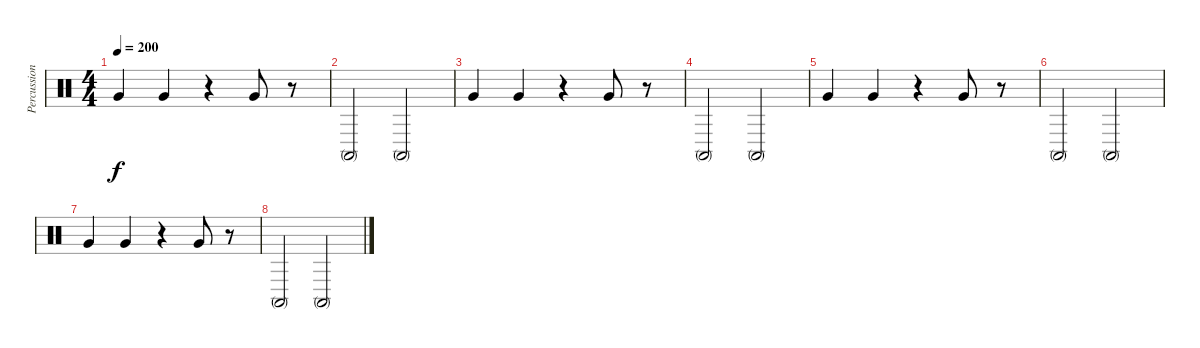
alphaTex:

\track ("Percussions" "Percussion") {instrument percussion}
\staff {score}
\articulation defaults
\ts (4 4)
\tempo 200
\clef neutral
\ks c "Very Low Tom (hit)".4{dy f} "Very Low Tom (hit)".4
r.4 "Very Low Tom (hit)".8 r.8 |
"Conga high (mute)".2 "Conga high (mute)".2 |
"Very Low Tom (hit)".4 "Very Low Tom (hit)".4 r.4 "Very Low Tom (hit)".8 r.8 |
"Conga high (mute)".2 "Conga high (mute)".2 |
"Very Low Tom (hit)".4 "Very Low Tom (hit)".4 r.4 "Very Low Tom (hit)".8 r.8 |
"Conga high (mute)".2 "Conga high (mute)".2 |
"Very Low Tom (hit)".4 "Very Low Tom (hit)".4 r.4 "Very Low Tom (hit)".8 r.8 |
"Conga high (mute)".2 "Conga high (mute)".2
